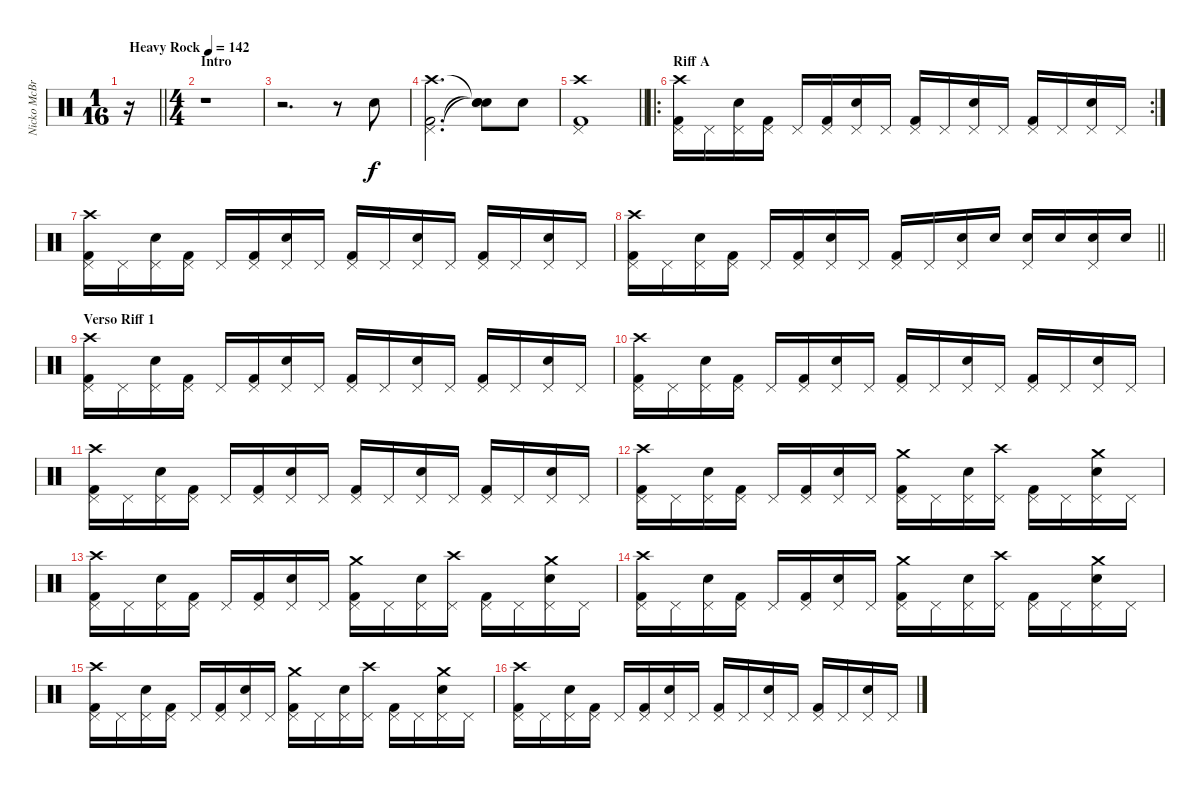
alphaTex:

\track ("Nicko McBrain" "Nicko McBr") {instrument percussion}
\staff {score}
\articulation defaults
\ts (1 16)
\tempo (142 "Heavy Rock")
\clef neutral
\barLineRight lightlight
\ks c
r.16{dy f} |
\ts (4 4)
\section ("" "Intro")
r.1 |
r.2{d} r.8 "Snare (hit) 2".8 |
("Kick (hit) 2" "Pedal Hi-Hat (hit)" "Crash high (hit)").2{d} ("Snare (hit)"{t} "Snare (hit)"{t} "Snare (hit)"{t}).8 "Snare (hit) 2".8 |
\barLineRight lightlight
("Kick (hit) 2" "Pedal Hi-Hat (hit)" "Crash high (hit)").1 |
\ro
\rc 2
\section ("" "Riff A")
("Kick (hit) 2" "Pedal Hi-Hat (hit)" "Crash high (hit)").16 "Pedal Hi-Hat (hit)".16 ("Snare (hit) 2" "Pedal Hi-Hat (hit)").16 ("Kick (hit) 2" "Pedal Hi-Hat (hit)").16 "Pedal Hi-Hat (hit)".16 ("Kick (hit) 2" "Pedal Hi-Hat (hit)").16 ("Snare (hit) 2" "Pedal Hi-Hat (hit)").16 "Pedal Hi-Hat (hit)".16 ("Kick (hit) 2" "Pedal Hi-Hat (hit)").16 "Pedal Hi-Hat (hit)".16 ("Snare (hit) 2" "Pedal Hi-Hat (hit)").16 "Pedal Hi-Hat (hit)".16 ("Kick (hit) 2" "Pedal Hi-Hat (hit)").16 "Pedal Hi-Hat (hit)".16 ("Snare (hit) 2" "Pedal Hi-Hat (hit)").16 "Pedal Hi-Hat (hit)".16 |
("Kick (hit) 2" "Pedal Hi-Hat (hit)" "Crash high (hit)").16 "Pedal Hi-Hat (hit)".16 ("Snare (hit) 2" "Pedal Hi-Hat (hit)").16 ("Kick (hit) 2" "Pedal Hi-Hat (hit)").16 "Pedal Hi-Hat (hit)".16 ("Kick (hit) 2" "Pedal Hi-Hat (hit)").16 ("Snare (hit) 2" "Pedal Hi-Hat (hit)").16 "Pedal Hi-Hat (hit)".16 ("Kick (hit) 2" "Pedal Hi-Hat (hit)").16 "Pedal Hi-Hat (hit)".16 ("Snare (hit) 2" "Pedal Hi-Hat (hit)").16 "Pedal Hi-Hat (hit)".16 ("Kick (hit) 2" "Pedal Hi-Hat (hit)").16 "Pedal Hi-Hat (hit)".16 ("Snare (hit) 2" "Pedal Hi-Hat (hit)").16 "Pedal Hi-Hat (hit)".16 |
\barLineRight lightlight
("Kick (hit) 2" "Pedal Hi-Hat (hit)" "Crash high (hit)").16 "Pedal Hi-Hat (hit)".16 ("Snare (hit) 2" "Pedal Hi-Hat (hit)").16 ("Kick (hit) 2" "Pedal Hi-Hat (hit)").16 "Pedal Hi-Hat (hit)".16 ("Kick (hit) 2" "Pedal Hi-Hat (hit)").16 ("Snare (hit) 2" "Pedal Hi-Hat (hit)").16 "Pedal Hi-Hat (hit)".16 ("Kick (hit) 2" "Pedal Hi-Hat (hit)").16 "Pedal Hi-Hat (hit)".16 ("Snare (hit) 2" "Pedal Hi-Hat (hit)").16 "Snare (hit) 2".16 ("Snare (hit) 2" "Pedal Hi-Hat (hit)").16 "Snare (hit) 2".16 ("Snare (hit) 2" "Pedal Hi-Hat (hit)").16 "Snare (hit) 2".16 |
\section ("" "Verso Riff 1")
("Kick (hit) 2" "Pedal Hi-Hat (hit)" "Crash high (hit)").16 "Pedal Hi-Hat (hit)".16 ("Snare (hit) 2" "Pedal Hi-Hat (hit)").16 ("Kick (hit) 2" "Pedal Hi-Hat (hit)").16 "Pedal Hi-Hat (hit)".16 ("Kick (hit) 2" "Pedal Hi-Hat (hit)").16 ("Snare (hit) 2" "Pedal Hi-Hat (hit)").16 "Pedal Hi-Hat (hit)".16 ("Kick (hit) 2" "Pedal Hi-Hat (hit)").16 "Pedal Hi-Hat (hit)".16 ("Snare (hit) 2" "Pedal Hi-Hat (hit)").16 "Pedal Hi-Hat (hit)".16 ("Kick (hit) 2" "Pedal Hi-Hat (hit)").16 "Pedal Hi-Hat (hit)".16 ("Snare (hit) 2" "Pedal Hi-Hat (hit)").16 "Pedal Hi-Hat (hit)".16 |
("Kick (hit) 2" "Pedal Hi-Hat (hit)" "Crash high (hit)").16 "Pedal Hi-Hat (hit)".16 ("Snare (hit) 2" "Pedal Hi-Hat (hit)").16 ("Kick (hit) 2" "Pedal Hi-Hat (hit)").16 "Pedal Hi-Hat (hit)".16 ("Kick (hit) 2" "Pedal Hi-Hat (hit)").16 ("Snare (hit) 2" "Pedal Hi-Hat (hit)").16 "Pedal Hi-Hat (hit)".16 ("Kick (hit) 2" "Pedal Hi-Hat (hit)").16 "Pedal Hi-Hat (hit)".16 ("Snare (hit) 2" "Pedal Hi-Hat (hit)").16 "Pedal Hi-Hat (hit)".16 ("Kick (hit) 2" "Pedal Hi-Hat (hit)").16 "Pedal Hi-Hat (hit)".16 ("Snare (hit) 2" "Pedal Hi-Hat (hit)").16 "Pedal Hi-Hat (hit)".16 |
("Kick (hit) 2" "Pedal Hi-Hat (hit)" "Crash high (hit)").16 "Pedal Hi-Hat (hit)".16 ("Snare (hit) 2" "Pedal Hi-Hat (hit)").16 ("Kick (hit) 2" "Pedal Hi-Hat (hit)").16 "Pedal Hi-Hat (hit)".16 ("Kick (hit) 2" "Pedal Hi-Hat (hit)").16 ("Snare (hit) 2" "Pedal Hi-Hat (hit)").16 "Pedal Hi-Hat (hit)".16 ("Kick (hit) 2" "Pedal Hi-Hat (hit)").16 "Pedal Hi-Hat (hit)".16 ("Snare (hit) 2" "Pedal Hi-Hat (hit)").16 "Pedal Hi-Hat (hit)".16 ("Kick (hit) 2" "Pedal Hi-Hat (hit)").16 "Pedal Hi-Hat (hit)".16 ("Snare (hit) 2" "Pedal Hi-Hat (hit)").16 "Pedal Hi-Hat (hit)".16 |
("Kick (hit) 2" "Pedal Hi-Hat (hit)" "Crash high (hit)").16 "Pedal Hi-Hat (hit)".16 ("Snare (hit) 2" "Pedal Hi-Hat (hit)").16 ("Kick (hit) 2" "Pedal Hi-Hat (hit)").16 "Pedal Hi-Hat (hit)".16 ("Kick (hit) 2" "Pedal Hi-Hat (hit)").16 ("Snare (hit) 2" "Pedal Hi-Hat (hit)").16 "Pedal Hi-Hat (hit)".16 ("Kick (hit) 2" "Pedal Hi-Hat (hit)" "Crash medium (hit)").16 "Pedal Hi-Hat (hit)".16 ("Snare (hit) 2" "Pedal Hi-Hat (hit)").16 ("Pedal Hi-Hat (hit)" "Crash high (hit)").16 ("Kick (hit) 2" "Pedal Hi-Hat (hit)").16 "Pedal Hi-Hat (hit)".16 ("Snare (hit) 2" "Pedal Hi-Hat (hit)" "Crash medium (hit)").16 "Pedal Hi-Hat (hit)".16 |
("Kick (hit) 2" "Pedal Hi-Hat (hit)" "Crash high (hit)").16 "Pedal Hi-Hat (hit)".16 ("Snare (hit) 2" "Pedal Hi-Hat (hit)").16 ("Kick (hit) 2" "Pedal Hi-Hat (hit)").16 "Pedal Hi-Hat (hit)".16 ("Kick (hit) 2" "Pedal Hi-Hat (hit)").16 ("Snare (hit) 2" "Pedal Hi-Hat (hit)").16 "Pedal Hi-Hat (hit)".16 ("Kick (hit) 2" "Pedal Hi-Hat (hit)" "Crash medium (hit)").16 "Pedal Hi-Hat (hit)".16 ("Snare (hit) 2" "Pedal Hi-Hat (hit)").16 ("Pedal Hi-Hat (hit)" "Crash high (hit)").16 ("Kick (hit) 2" "Pedal Hi-Hat (hit)").16 "Pedal Hi-Hat (hit)".16 ("Snare (hit) 2" "Pedal Hi-Hat (hit)" "Crash medium (hit)").16 "Pedal Hi-Hat (hit)".16 |
("Kick (hit) 2" "Pedal Hi-Hat (hit)" "Crash high (hit)").16 "Pedal Hi-Hat (hit)".16 ("Snare (hit) 2" "Pedal Hi-Hat (hit)").16 ("Kick (hit) 2" "Pedal Hi-Hat (hit)").16 "Pedal Hi-Hat (hit)".16 ("Kick (hit) 2" "Pedal Hi-Hat (hit)").16 ("Snare (hit) 2" "Pedal Hi-Hat (hit)").16 "Pedal Hi-Hat (hit)".16 ("Kick (hit) 2" "Pedal Hi-Hat (hit)" "Crash medium (hit)").16 "Pedal Hi-Hat (hit)".16 ("Snare (hit) 2" "Pedal Hi-Hat (hit)").16 ("Pedal Hi-Hat (hit)" "Crash high (hit)").16 ("Kick (hit) 2" "Pedal Hi-Hat (hit)").16 "Pedal Hi-Hat (hit)".16 ("Snare (hit) 2" "Pedal Hi-Hat (hit)" "Crash medium (hit)").16 "Pedal Hi-Hat (hit)".16 |
("Kick (hit) 2" "Pedal Hi-Hat (hit)" "Crash high (hit)").16 "Pedal Hi-Hat (hit)".16 ("Snare (hit) 2" "Pedal Hi-Hat (hit)").16 ("Kick (hit) 2" "Pedal Hi-Hat (hit)").16 "Pedal Hi-Hat (hit)".16 ("Kick (hit) 2" "Pedal Hi-Hat (hit)").16 ("Snare (hit) 2" "Pedal Hi-Hat (hit)").16 "Pedal Hi-Hat (hit)".16 ("Kick (hit) 2" "Pedal Hi-Hat (hit)" "Crash medium (hit)").16 "Pedal Hi-Hat (hit)".16 ("Snare (hit) 2" "Pedal Hi-Hat (hit)").16 ("Pedal Hi-Hat (hit)" "Crash high (hit)").16 ("Kick (hit) 2" "Pedal Hi-Hat (hit)").16 "Pedal Hi-Hat (hit)".16 ("Snare (hit) 2" "Pedal Hi-Hat (hit)" "Crash medium (hit)").16 "Pedal Hi-Hat (hit)".16 |
("Kick (hit) 2" "Pedal Hi-Hat (hit)" "Crash high (hit)").16 "Pedal Hi-Hat (hit)".16 ("Snare (hit) 2" "Pedal Hi-Hat (hit)").16 ("Kick (hit) 2" "Pedal Hi-Hat (hit)").16 "Pedal Hi-Hat (hit)".16 ("Kick (hit) 2" "Pedal Hi-Hat (hit)").16 ("Snare (hit) 2" "Pedal Hi-Hat (hit)").16 "Pedal Hi-Hat (hit)".16 ("Kick (hit) 2" "Pedal Hi-Hat (hit)").16 "Pedal Hi-Hat (hit)".16 ("Snare (hit) 2" "Pedal Hi-Hat (hit)").16 "Pedal Hi-Hat (hit)".16 ("Kick (hit) 2" "Pedal Hi-Hat (hit)").16 "Pedal Hi-Hat (hit)".16 ("Snare (hit) 2" "Pedal Hi-Hat (hit)").16 "Pedal Hi-Hat (hit)".16
